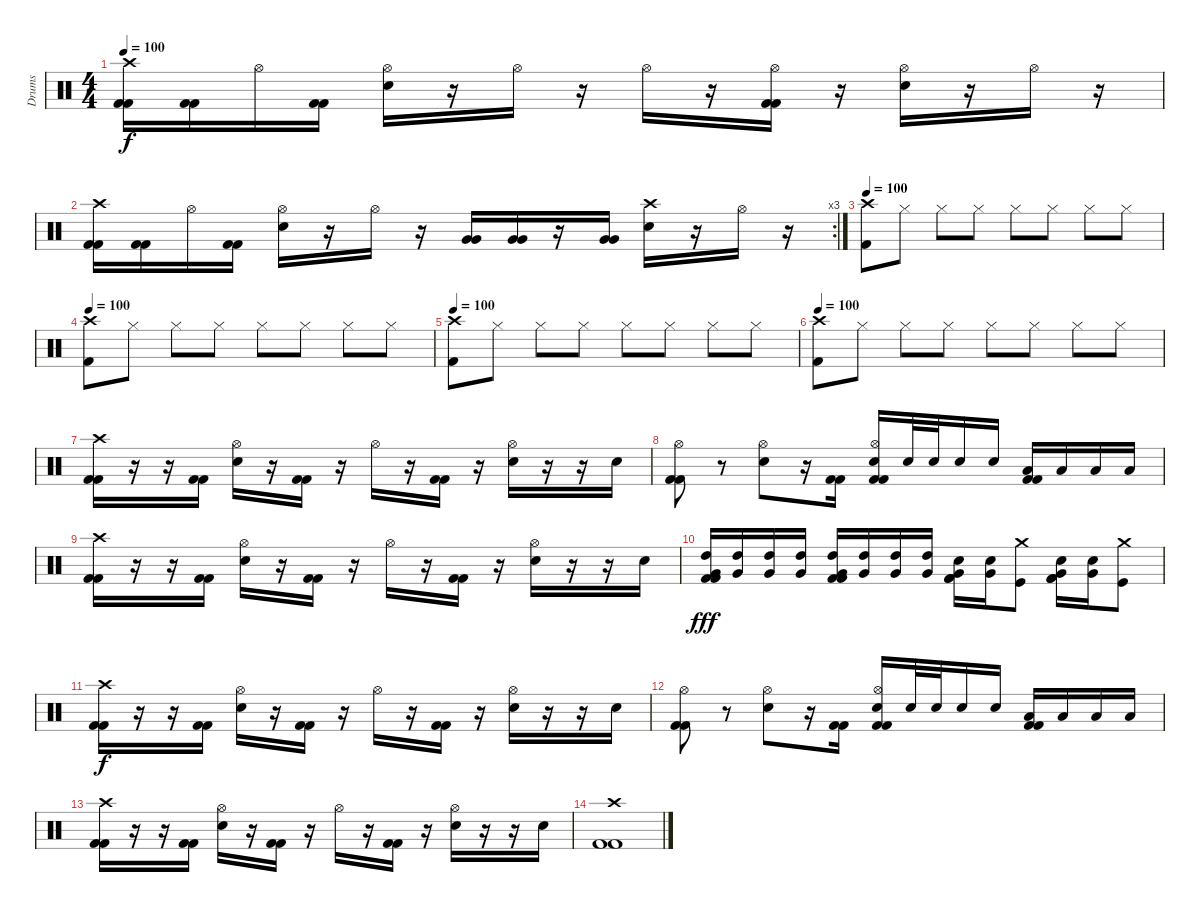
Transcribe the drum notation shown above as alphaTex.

\track ("Drums" "Drums") {instrument percussion}
\staff {score}
\articulation defaults
\ts (4 4)
\tempo 100
\clef neutral
\ks c
("Crash high (hit)" "Kick (hit) 2" "Kick (hit) 2").16{dy f} ("Kick (hit) 2" "Kick (hit) 2").16 "Hi-Hat (open)".16 ("Kick (hit) 2" "Kick (hit) 2").16 ("Hi-Hat (open)" "Electric Snare (hit)").16 r.16 "Hi-Hat (open)".16 r.16 "Hi-Hat (open)".16 r.16 ("Hi-Hat (open)" "Kick (hit) 2" "Kick (hit) 2").16 r.16 ("Hi-Hat (open)" "Electric Snare (hit)").16 r.16 "Hi-Hat (open)".16 r.16 |
\rc 3
("Crash high (hit)" "Kick (hit) 2" "Kick (hit) 2").16 ("Kick (hit) 2" "Kick (hit) 2").16 "Hi-Hat (open)".16 ("Kick (hit) 2" "Kick (hit) 2").16 ("Hi-Hat (open)" "Electric Snare (hit)").16 r.16 "Hi-Hat (open)".16 r.16 ("Very Low Tom (hit)" "Very Low Tom (hit)").16 ("Very Low Tom (hit)" "Very Low Tom (hit)").16 r.16 ("Very Low Tom (hit)" "Very Low Tom (hit)").16 ("Crash high (hit)" "Electric Snare (hit)").16 r.16 "Hi-Hat (open)".16 r.16 |
\tempo 100
("Crash high (hit)" "Kick (hit) 2").8 "Hi-Hat (closed)".8 "Hi-Hat (closed)".8 "Hi-Hat (closed)".8 "Hi-Hat (closed)".8 "Hi-Hat (closed)".8 "Hi-Hat (closed)".8 "Hi-Hat (closed)".8 |
\tempo 100
("Crash high (hit)" "Kick (hit) 2").8 "Hi-Hat (closed)".8 "Hi-Hat (closed)".8 "Hi-Hat (closed)".8 "Hi-Hat (closed)".8 "Hi-Hat (closed)".8 "Hi-Hat (closed)".8 "Hi-Hat (closed)".8 |
\tempo 100
("Crash high (hit)" "Kick (hit) 2").8 "Hi-Hat (closed)".8 "Hi-Hat (closed)".8 "Hi-Hat (closed)".8 "Hi-Hat (closed)".8 "Hi-Hat (closed)".8 "Hi-Hat (closed)".8 "Hi-Hat (closed)".8 |
\tempo 100
("Crash high (hit)" "Kick (hit) 2").8 "Hi-Hat (closed)".8 "Hi-Hat (closed)".8 "Hi-Hat (closed)".8 "Hi-Hat (closed)".8 "Hi-Hat (closed)".8 "Hi-Hat (closed)".8 "Hi-Hat (closed)".8 |
("Crash high (hit)" "Kick (hit) 2" "Kick (hit) 2").16 r.16 r.16 ("Kick (hit) 2" "Kick (hit) 2").16 ("Hi-Hat (open)" "Electric Snare (hit)").16 r.16 ("Kick (hit) 2" "Kick (hit) 2").16 r.16 "Hi-Hat (open)".16 r.16 ("Kick (hit) 2" "Kick (hit) 2").16 r.16 ("Hi-Hat (open)" "Electric Snare (hit)").16 r.16 r.16 "Electric Snare (hit)".16 |
("Hi-Hat (open)" "Kick (hit) 2" "Kick (hit) 2").8 r.8 ("Hi-Hat (open)" "Electric Snare (hit)").8 r.16 ("Kick (hit) 2" "Kick (hit) 2").16 ("Hi-Hat (open)" "Electric Snare (hit)" "Kick (hit) 2" "Kick (hit) 2").16 "Electric Snare (hit)".32 "Electric Snare (hit)".32 "Electric Snare (hit)".16 "Electric Snare (hit)".16 ("Low Tom (hit)" "Kick (hit) 2" "Kick (hit) 2").16 "Low Tom (hit)".16 "Low Tom (hit)".16 "Low Tom (hit)".16 |
("Crash high (hit)" "Kick (hit) 2" "Kick (hit) 2").16 r.16 r.16 ("Kick (hit) 2" "Kick (hit) 2").16 ("Hi-Hat (open)" "Electric Snare (hit)").16 r.16 ("Kick (hit) 2" "Kick (hit) 2").16 r.16 "Hi-Hat (open)".16 r.16 ("Kick (hit) 2" "Kick (hit) 2").16 r.16 ("Hi-Hat (open)" "Electric Snare (hit)").16 r.16 r.16 "Electric Snare (hit)".16 |
("High Tom (hit)" "Very Low Tom (hit)" "Kick (hit) 2" "Kick (hit) 2").16{dy fff} ("High Tom (hit)" "Very Low Tom (hit)").16 ("High Tom (hit)" "Very Low Tom (hit)").16 ("High Tom (hit)" "Very Low Tom (hit)").16 ("High Tom (hit)" "Very Low Tom (hit)" "Kick (hit) 2" "Kick (hit) 2").16 ("High Tom (hit)" "Very Low Tom (hit)").16 ("High Tom (hit)" "Very Low Tom (hit)").16 ("High Tom (hit)" "Very Low Tom (hit)").16 ("Snare (hit) 2" "Very Low Tom (hit)" "Kick (hit) 2" "Kick (hit) 2").16 ("Snare (hit) 2" "Very Low Tom (hit)").16 ("Kick (hit)" "Crash medium (hit)").8 ("Snare (hit) 2" "Very Low Tom (hit)" "Kick (hit) 2" "Kick (hit) 2").16 ("Snare (hit) 2" "Very Low Tom (hit)").16 ("Crash medium (hit)" "Kick (hit)").8 |
("Crash high (hit)" "Kick (hit) 2" "Kick (hit) 2").16{dy f} r.16 r.16 ("Kick (hit) 2" "Kick (hit) 2").16 ("Hi-Hat (open)" "Electric Snare (hit)").16 r.16 ("Kick (hit) 2" "Kick (hit) 2").16 r.16 "Hi-Hat (open)".16 r.16 ("Kick (hit) 2" "Kick (hit) 2").16 r.16 ("Hi-Hat (open)" "Electric Snare (hit)").16 r.16 r.16 "Electric Snare (hit)".16 |
("Hi-Hat (open)" "Kick (hit) 2" "Kick (hit) 2").8 r.8 ("Hi-Hat (open)" "Electric Snare (hit)").8 r.16 ("Kick (hit) 2" "Kick (hit) 2").16 ("Hi-Hat (open)" "Electric Snare (hit)" "Kick (hit) 2" "Kick (hit) 2").16 "Electric Snare (hit)".32 "Electric Snare (hit)".32 "Electric Snare (hit)".16 "Electric Snare (hit)".16 ("Low Tom (hit)" "Kick (hit) 2" "Kick (hit) 2").16 "Low Tom (hit)".16 "Low Tom (hit)".16 "Low Tom (hit)".16 |
("Crash high (hit)" "Kick (hit) 2" "Kick (hit) 2").16 r.16 r.16 ("Kick (hit) 2" "Kick (hit) 2").16 ("Hi-Hat (open)" "Electric Snare (hit)").16 r.16 ("Kick (hit) 2" "Kick (hit) 2").16 r.16 "Hi-Hat (open)".16 r.16 ("Kick (hit) 2" "Kick (hit) 2").16 r.16 ("Hi-Hat (open)" "Electric Snare (hit)").16 r.16 r.16 "Electric Snare (hit)".16 |
("Crash high (hit)" "Kick (hit) 2" "Kick (hit) 2").1
